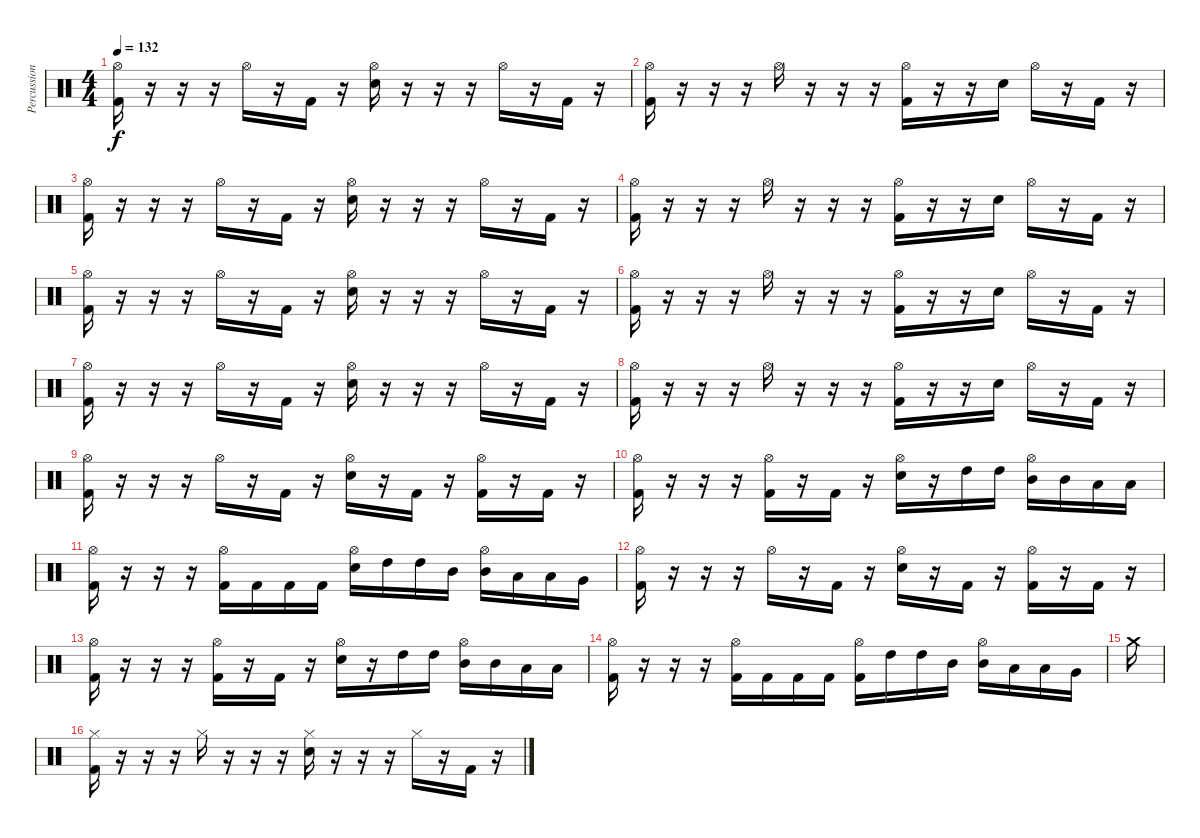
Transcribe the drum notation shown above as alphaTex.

\track ("Percussion" "Percussion") {instrument percussion}
\staff {score}
\articulation defaults
\ts (4 4)
\tempo 132
\clef neutral
\ks c
("Hi-Hat (open)" "Kick (hit) 2").16{dy f} r.16 r.16 r.16 "Hi-Hat (open)".16 r.16 "Kick (hit) 2".16 r.16 ("Hi-Hat (open)" "Snare (hit) 2").16 r.16 r.16 r.16 "Hi-Hat (open)".16 r.16 "Kick (hit) 2".16 r.16 |
("Hi-Hat (open)" "Kick (hit) 2").16 r.16 r.16 r.16 "Hi-Hat (open)".16 r.16 r.16 r.16 ("Hi-Hat (open)" "Kick (hit) 2").16 r.16 r.16 "Snare (hit) 2".16 "Hi-Hat (open)".16 r.16 "Kick (hit) 2".16 r.16 |
("Hi-Hat (open)" "Kick (hit) 2").16 r.16 r.16 r.16 "Hi-Hat (open)".16 r.16 "Kick (hit) 2".16 r.16 ("Hi-Hat (open)" "Snare (hit) 2").16 r.16 r.16 r.16 "Hi-Hat (open)".16 r.16 "Kick (hit) 2".16 r.16 |
("Hi-Hat (open)" "Kick (hit) 2").16 r.16 r.16 r.16 "Hi-Hat (open)".16 r.16 r.16 r.16 ("Hi-Hat (open)" "Kick (hit) 2").16 r.16 r.16 "Snare (hit) 2".16 "Hi-Hat (open)".16 r.16 "Kick (hit) 2".16 r.16 |
("Hi-Hat (open)" "Kick (hit) 2").16 r.16 r.16 r.16 "Hi-Hat (open)".16 r.16 "Kick (hit) 2".16 r.16 ("Hi-Hat (open)" "Snare (hit) 2").16 r.16 r.16 r.16 "Hi-Hat (open)".16 r.16 "Kick (hit) 2".16 r.16 |
("Hi-Hat (open)" "Kick (hit) 2").16 r.16 r.16 r.16 "Hi-Hat (open)".16 r.16 r.16 r.16 ("Hi-Hat (open)" "Kick (hit) 2").16 r.16 r.16 "Snare (hit) 2".16 "Hi-Hat (open)".16 r.16 "Kick (hit) 2".16 r.16 |
("Hi-Hat (open)" "Kick (hit) 2").16 r.16 r.16 r.16 "Hi-Hat (open)".16 r.16 "Kick (hit) 2".16 r.16 ("Hi-Hat (open)" "Snare (hit) 2").16 r.16 r.16 r.16 "Hi-Hat (open)".16 r.16 "Kick (hit) 2".16 r.16 |
("Hi-Hat (open)" "Kick (hit) 2").16 r.16 r.16 r.16 "Hi-Hat (open)".16 r.16 r.16 r.16 ("Hi-Hat (open)" "Kick (hit) 2").16 r.16 r.16 "Snare (hit) 2".16 "Hi-Hat (open)".16 r.16 "Kick (hit) 2".16 r.16 |
("Hi-Hat (open)" "Kick (hit) 2").16 r.16 r.16 r.16 "Hi-Hat (open)".16 r.16 "Kick (hit) 2".16 r.16 ("Hi-Hat (open)" "Snare (hit) 2").16 r.16 "Kick (hit) 2".16 r.16 ("Hi-Hat (open)" "Kick (hit) 2").16 r.16 "Kick (hit) 2".16 r.16 |
("Hi-Hat (open)" "Kick (hit) 2").16 r.16 r.16 r.16 ("Hi-Hat (open)" "Kick (hit) 2").16 r.16 "Kick (hit) 2".16 r.16 ("Hi-Hat (open)" "Snare (hit) 2").16 r.16 "High Tom (hit)".16 "High Tom (hit)".16 ("Hi-Hat (open)" "Mid Tom (hit)").16 "Mid Tom (hit)".16 "Low Tom (hit)".16 "Low Tom (hit)".16 |
("Hi-Hat (open)" "Kick (hit) 2").16 r.16 r.16 r.16 ("Hi-Hat (open)" "Kick (hit) 2").16 "Kick (hit) 2".16 "Kick (hit) 2".16 "Kick (hit) 2".16 ("Hi-Hat (open)" "Snare (hit) 2").16 "High Tom (hit)".16 "High Tom (hit)".16 "Mid Tom (hit)".16 ("Hi-Hat (open)" "Mid Tom (hit)").16 "Low Tom (hit)".16 "Low Tom (hit)".16 "Very Low Tom (hit)".16 |
("Hi-Hat (open)" "Kick (hit) 2").16 r.16 r.16 r.16 "Hi-Hat (open)".16 r.16 "Kick (hit) 2".16 r.16 ("Hi-Hat (open)" "Snare (hit) 2").16 r.16 "Kick (hit) 2".16 r.16 ("Hi-Hat (open)" "Kick (hit) 2").16 r.16 "Kick (hit) 2".16 r.16 |
("Hi-Hat (open)" "Kick (hit) 2").16 r.16 r.16 r.16 ("Hi-Hat (open)" "Kick (hit) 2").16 r.16 "Kick (hit) 2".16 r.16 ("Hi-Hat (open)" "Snare (hit) 2").16 r.16 "High Tom (hit)".16 "High Tom (hit)".16 ("Hi-Hat (open)" "Mid Tom (hit)").16 "Mid Tom (hit)".16 "Low Tom (hit)".16 "Low Tom (hit)".16 |
("Hi-Hat (open)" "Kick (hit) 2").16 r.16 r.16 r.16 ("Hi-Hat (open)" "Kick (hit) 2").16 "Kick (hit) 2".16 "Kick (hit) 2".16 "Kick (hit) 2".16 ("Hi-Hat (open)" "Kick (hit) 2").16 "High Tom (hit)".16 "High Tom (hit)".16 "Mid Tom (hit)".16 ("Hi-Hat (open)" "Mid Tom (hit)").16 "Low Tom (hit)".16 "Low Tom (hit)".16 "Very Low Tom (hit)".16 |
"Crash medium (hit)".16 |
("Hi-Hat (closed)" "Kick (hit) 2").16 r.16 r.16 r.16 "Hi-Hat (closed)".16 r.16 r.16 r.16 ("Hi-Hat (closed)" "Snare (hit) 2").16 r.16 r.16 r.16 "Hi-Hat (closed)".16 r.16 "Kick (hit) 2".16 r.16
